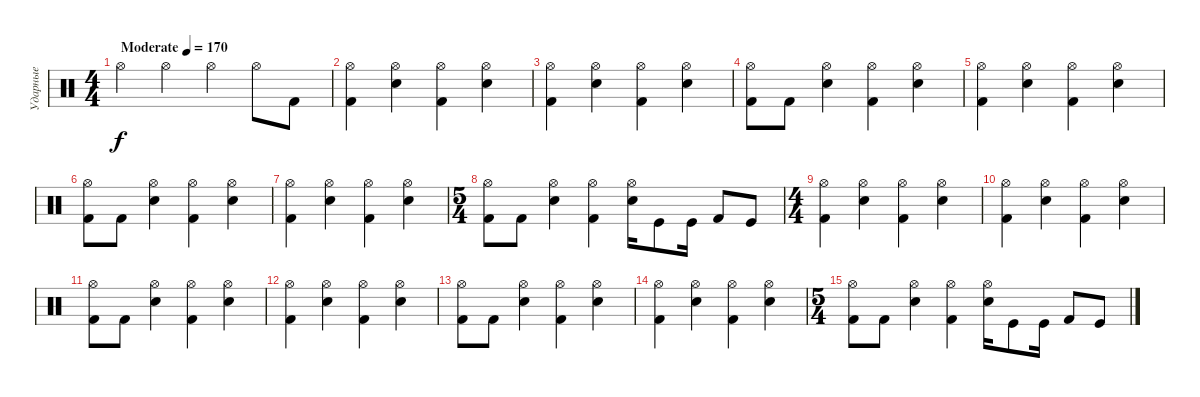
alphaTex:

\track ("Ударные" "Ударные") {instrument percussion}
\staff {score}
\articulation defaults
\ts (4 4)
\tempo (170 "Moderate")
\clef neutral
\ks c "Hi-Hat (open)".4{dy f} "Hi-Hat (open)".4 "Hi-Hat (open)".4 "Hi-Hat (open)".8 "Kick (hit) 2".8
|
("Hi-Hat (open)" "Kick (hit) 2").4 ("Hi-Hat (open)" "Snare (hit) 2").4 ("Hi-Hat (open)" "Kick (hit) 2").4 ("Hi-Hat (open)" "Snare (hit) 2").4 |
("Hi-Hat (open)" "Kick (hit) 2").4 ("Hi-Hat (open)" "Snare (hit) 2").4 ("Hi-Hat (open)" "Kick (hit) 2").4 ("Hi-Hat (open)" "Snare (hit) 2").4 |
("Hi-Hat (open)" "Kick (hit) 2").8 "Kick (hit) 2".8 ("Hi-Hat (open)" "Snare (hit) 2").4 ("Hi-Hat (open)" "Kick (hit) 2").4 ("Hi-Hat (open)" "Snare (hit) 2").4 |
("Hi-Hat (open)" "Kick (hit) 2").4 ("Hi-Hat (open)" "Snare (hit) 2").4 ("Hi-Hat (open)" "Kick (hit) 2").4 ("Hi-Hat (open)" "Snare (hit) 2").4 |
("Hi-Hat (open)" "Kick (hit) 2").8 "Kick (hit) 2".8 ("Hi-Hat (open)" "Snare (hit) 2").4 ("Hi-Hat (open)" "Kick (hit) 2").4 ("Hi-Hat (open)" "Snare (hit) 2").4 |
("Hi-Hat (open)" "Kick (hit) 2").4 ("Hi-Hat (open)" "Snare (hit) 2").4 ("Hi-Hat (open)" "Kick (hit) 2").4 ("Hi-Hat (open)" "Snare (hit) 2").4 |
\ts (5 4)
("Hi-Hat (open)" "Kick (hit) 2").8 "Kick (hit) 2".8 ("Hi-Hat (open)" "Snare (hit) 2").4 ("Hi-Hat (open)" "Kick (hit) 2").4 ("Hi-Hat (open)" "Snare (hit) 2").16 "Kick (hit)".8 "Kick (hit)".16 "Kick (hit) 2".8 "Kick (hit)".8 |
\ts (4 4)
("Hi-Hat (open)" "Kick (hit) 2").4 ("Hi-Hat (open)" "Snare (hit) 2").4 ("Hi-Hat (open)" "Kick (hit) 2").4 ("Hi-Hat (open)" "Snare (hit) 2").4 |
("Hi-Hat (open)" "Kick (hit) 2").4 ("Hi-Hat (open)" "Snare (hit) 2").4 ("Hi-Hat (open)" "Kick (hit) 2").4 ("Hi-Hat (open)" "Snare (hit) 2").4 |
("Hi-Hat (open)" "Kick (hit) 2").8 "Kick (hit) 2".8 ("Hi-Hat (open)" "Snare (hit) 2").4 ("Hi-Hat (open)" "Kick (hit) 2").4 ("Hi-Hat (open)" "Snare (hit) 2").4 |
("Hi-Hat (open)" "Kick (hit) 2").4 ("Hi-Hat (open)" "Snare (hit) 2").4 ("Hi-Hat (open)" "Kick (hit) 2").4 ("Hi-Hat (open)" "Snare (hit) 2").4 |
("Hi-Hat (open)" "Kick (hit) 2").8 "Kick (hit) 2".8 ("Hi-Hat (open)" "Snare (hit) 2").4 ("Hi-Hat (open)" "Kick (hit) 2").4 ("Hi-Hat (open)" "Snare (hit) 2").4 |
("Hi-Hat (open)" "Kick (hit) 2").4 ("Hi-Hat (open)" "Snare (hit) 2").4 ("Hi-Hat (open)" "Kick (hit) 2").4 ("Hi-Hat (open)" "Snare (hit) 2").4 |
\ts (5 4)
("Hi-Hat (open)" "Kick (hit) 2").8 "Kick (hit) 2".8 ("Hi-Hat (open)" "Snare (hit) 2").4 ("Hi-Hat (open)" "Kick (hit) 2").4 ("Hi-Hat (open)" "Snare (hit) 2").16 "Kick (hit)".8 "Kick (hit)".16 "Kick (hit) 2".8 "Kick (hit)".8
